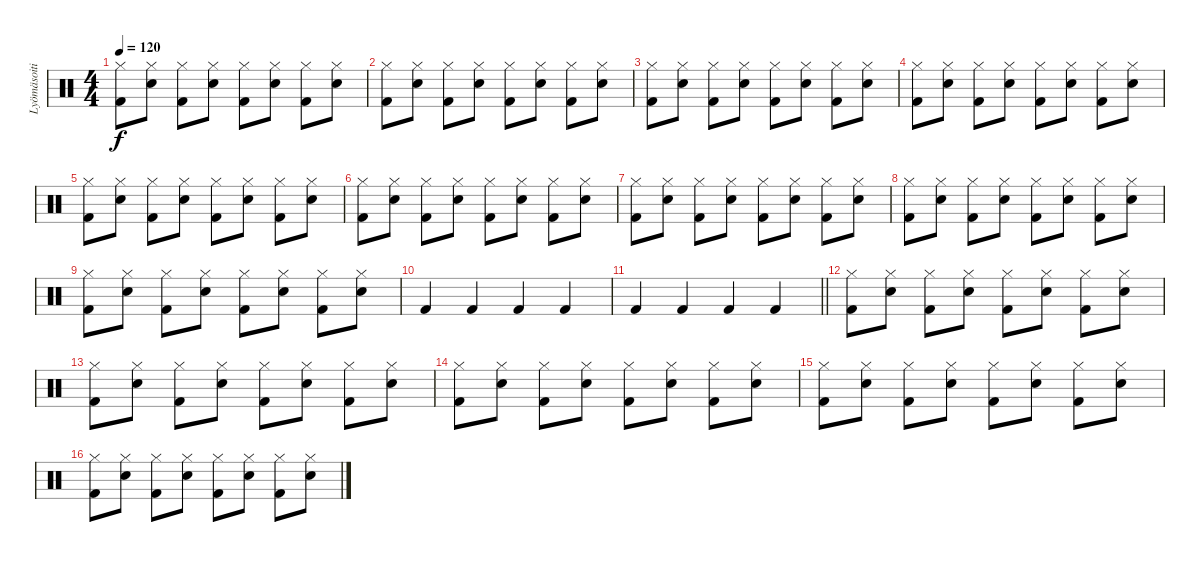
\track ("Lyömäsoitin" "Lyömäsoiti") {instrument percussion}
\staff {score}
\articulation defaults
\ts (4 4)
\tempo 120
\clef neutral
\ks c
("Hi-Hat (closed)" "Kick (hit) 2").8{dy f} ("Hi-Hat (closed)" "Snare (hit) 2").8 ("Hi-Hat (closed)" "Kick (hit) 2").8 ("Hi-Hat (closed)" "Snare (hit) 2").8 ("Hi-Hat (closed)" "Kick (hit) 2").8 ("Hi-Hat (closed)" "Snare (hit) 2").8 ("Hi-Hat (closed)" "Kick (hit) 2").8 ("Hi-Hat (closed)" "Snare (hit) 2").8 |
("Hi-Hat (closed)" "Kick (hit) 2").8 ("Hi-Hat (closed)" "Snare (hit) 2").8 ("Hi-Hat (closed)" "Kick (hit) 2").8 ("Hi-Hat (closed)" "Snare (hit) 2").8 ("Hi-Hat (closed)" "Kick (hit) 2").8 ("Hi-Hat (closed)" "Snare (hit) 2").8 ("Hi-Hat (closed)" "Kick (hit) 2").8 ("Hi-Hat (closed)" "Snare (hit) 2").8 |
("Hi-Hat (closed)" "Kick (hit) 2").8 ("Hi-Hat (closed)" "Snare (hit) 2").8 ("Hi-Hat (closed)" "Kick (hit) 2").8 ("Hi-Hat (closed)" "Snare (hit) 2").8 ("Hi-Hat (closed)" "Kick (hit) 2").8 ("Hi-Hat (closed)" "Snare (hit) 2").8 ("Hi-Hat (closed)" "Kick (hit) 2").8 ("Hi-Hat (closed)" "Snare (hit) 2").8 |
("Hi-Hat (closed)" "Kick (hit) 2").8 ("Hi-Hat (closed)" "Snare (hit) 2").8 ("Hi-Hat (closed)" "Kick (hit) 2").8 ("Hi-Hat (closed)" "Snare (hit) 2").8 ("Hi-Hat (closed)" "Kick (hit) 2").8 ("Hi-Hat (closed)" "Snare (hit) 2").8 ("Hi-Hat (closed)" "Kick (hit) 2").8 ("Hi-Hat (closed)" "Snare (hit) 2").8 |
("Hi-Hat (closed)" "Kick (hit) 2").8 ("Hi-Hat (closed)" "Snare (hit) 2").8 ("Hi-Hat (closed)" "Kick (hit) 2").8 ("Hi-Hat (closed)" "Snare (hit) 2").8 ("Hi-Hat (closed)" "Kick (hit) 2").8 ("Hi-Hat (closed)" "Snare (hit) 2").8 ("Hi-Hat (closed)" "Kick (hit) 2").8 ("Hi-Hat (closed)" "Snare (hit) 2").8 |
("Hi-Hat (closed)" "Kick (hit) 2").8 ("Hi-Hat (closed)" "Snare (hit) 2").8 ("Hi-Hat (closed)" "Kick (hit) 2").8 ("Hi-Hat (closed)" "Snare (hit) 2").8 ("Hi-Hat (closed)" "Kick (hit) 2").8 ("Hi-Hat (closed)" "Snare (hit) 2").8 ("Hi-Hat (closed)" "Kick (hit) 2").8 ("Hi-Hat (closed)" "Snare (hit) 2").8 |
("Hi-Hat (closed)" "Kick (hit) 2").8 ("Hi-Hat (closed)" "Snare (hit) 2").8 ("Hi-Hat (closed)" "Kick (hit) 2").8 ("Hi-Hat (closed)" "Snare (hit) 2").8 ("Hi-Hat (closed)" "Kick (hit) 2").8 ("Hi-Hat (closed)" "Snare (hit) 2").8 ("Hi-Hat (closed)" "Kick (hit) 2").8 ("Hi-Hat (closed)" "Snare (hit) 2").8 |
("Hi-Hat (closed)" "Kick (hit) 2").8 ("Hi-Hat (closed)" "Snare (hit) 2").8 ("Hi-Hat (closed)" "Kick (hit) 2").8 ("Hi-Hat (closed)" "Snare (hit) 2").8 ("Hi-Hat (closed)" "Kick (hit) 2").8 ("Hi-Hat (closed)" "Snare (hit) 2").8 ("Hi-Hat (closed)" "Kick (hit) 2").8 ("Hi-Hat (closed)" "Snare (hit) 2").8 |
("Hi-Hat (closed)" "Kick (hit) 2").8 ("Hi-Hat (closed)" "Snare (hit) 2").8 ("Hi-Hat (closed)" "Kick (hit) 2").8 ("Hi-Hat (closed)" "Snare (hit) 2").8 ("Hi-Hat (closed)" "Kick (hit) 2").8 ("Hi-Hat (closed)" "Snare (hit) 2").8 ("Hi-Hat (closed)" "Kick (hit) 2").8 ("Hi-Hat (closed)" "Snare (hit) 2").8 |
"Kick (hit) 2".4 "Kick (hit) 2".4 "Kick (hit) 2".4 "Kick (hit) 2".4 |
\barLineRight lightlight "Kick (hit) 2".4 "Kick (hit) 2".4 "Kick (hit) 2".4 "Kick (hit) 2".4
|
("Hi-Hat (closed)" "Kick (hit) 2").8 ("Hi-Hat (closed)" "Snare (hit) 2").8 ("Hi-Hat (closed)" "Kick (hit) 2").8 ("Hi-Hat (closed)" "Snare (hit) 2").8 ("Hi-Hat (closed)" "Kick (hit) 2").8 ("Hi-Hat (closed)" "Snare (hit) 2").8 ("Hi-Hat (closed)" "Kick (hit) 2").8 ("Hi-Hat (closed)" "Snare (hit) 2").8 |
("Hi-Hat (closed)" "Kick (hit) 2").8 ("Hi-Hat (closed)" "Snare (hit) 2").8 ("Hi-Hat (closed)" "Kick (hit) 2").8 ("Hi-Hat (closed)" "Snare (hit) 2").8 ("Hi-Hat (closed)" "Kick (hit) 2").8 ("Hi-Hat (closed)" "Snare (hit) 2").8 ("Hi-Hat (closed)" "Kick (hit) 2").8 ("Hi-Hat (closed)" "Snare (hit) 2").8 |
("Hi-Hat (closed)" "Kick (hit) 2").8 ("Hi-Hat (closed)" "Snare (hit) 2").8 ("Hi-Hat (closed)" "Kick (hit) 2").8 ("Hi-Hat (closed)" "Snare (hit) 2").8 ("Hi-Hat (closed)" "Kick (hit) 2").8 ("Hi-Hat (closed)" "Snare (hit) 2").8 ("Hi-Hat (closed)" "Kick (hit) 2").8 ("Hi-Hat (closed)" "Snare (hit) 2").8 |
("Hi-Hat (closed)" "Kick (hit) 2").8 ("Hi-Hat (closed)" "Snare (hit) 2").8 ("Hi-Hat (closed)" "Kick (hit) 2").8 ("Hi-Hat (closed)" "Snare (hit) 2").8 ("Hi-Hat (closed)" "Kick (hit) 2").8 ("Hi-Hat (closed)" "Snare (hit) 2").8 ("Hi-Hat (closed)" "Kick (hit) 2").8 ("Hi-Hat (closed)" "Snare (hit) 2").8 |
("Hi-Hat (closed)" "Kick (hit) 2").8 ("Hi-Hat (closed)" "Snare (hit) 2").8 ("Hi-Hat (closed)" "Kick (hit) 2").8 ("Hi-Hat (closed)" "Snare (hit) 2").8 ("Hi-Hat (closed)" "Kick (hit) 2").8 ("Hi-Hat (closed)" "Snare (hit) 2").8 ("Hi-Hat (closed)" "Kick (hit) 2").8 ("Hi-Hat (closed)" "Snare (hit) 2").8
